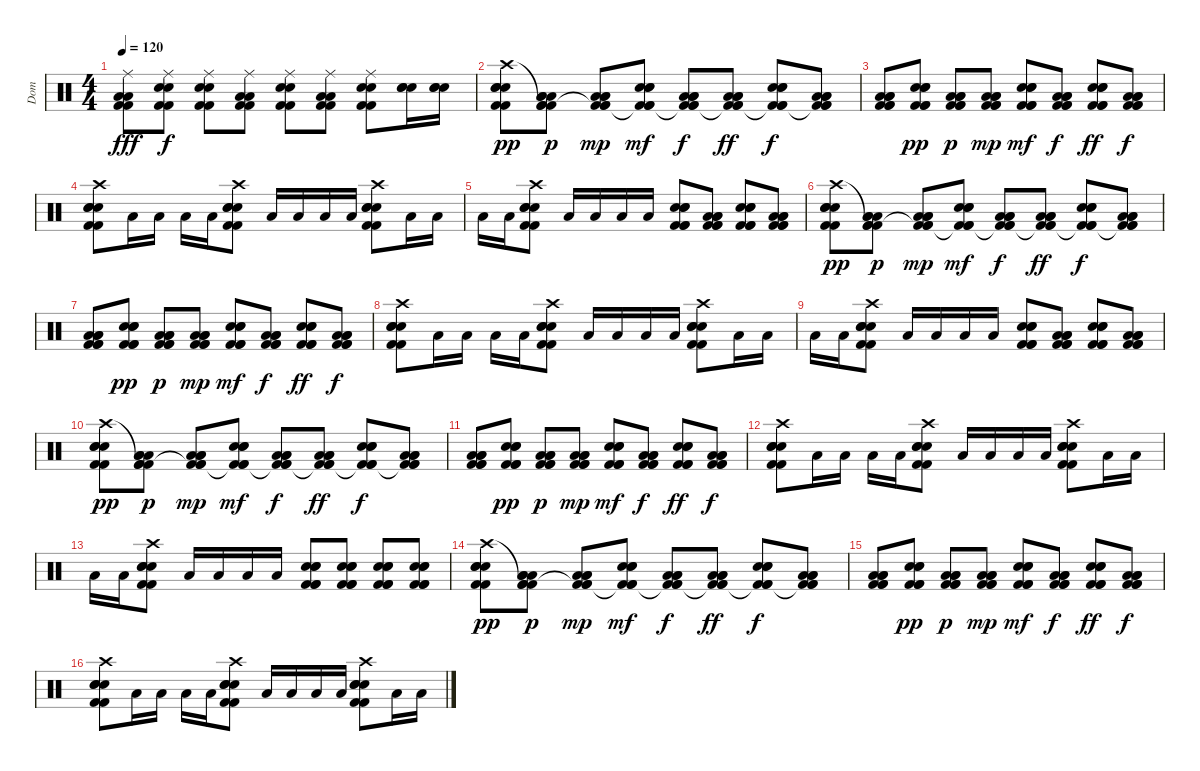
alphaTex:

\track ("Dom" "Dom") {instrument percussion}
\staff {score}
\articulation defaults
\ts (4 4)
\tempo 120
\clef neutral
\ks c
("Ride (middle)" "Low Floor Tom (hit)" "Low Floor Tom (hit)" "Kick (hit) 2" "Kick (hit) 2").8{dy fff} ("Ride (middle)" "Electric Snare (hit)" "Electric Snare (hit)" "Kick (hit) 2" "Kick (hit) 2").8{dy f} ("Ride (middle)" "Electric Snare (hit)" "Electric Snare (hit)" "Kick (hit) 2" "Kick (hit) 2").8 ("Ride (middle)" "Low Floor Tom (hit)" "Low Floor Tom (hit)" "Kick (hit) 2" "Kick (hit) 2").8 ("Ride (middle)" "Electric Snare (hit)" "Electric Snare (hit)" "Kick (hit) 2" "Kick (hit) 2").8 ("Ride (middle)" "Low Floor Tom (hit)" "Low Floor Tom (hit)" "Kick (hit) 2" "Kick (hit) 2").8 ("Ride (middle)" "Electric Snare (hit)" "Electric Snare (hit)" "Kick (hit) 2" "Kick (hit) 2").8 ("Electric Snare (hit)" "Electric Snare (hit)" "Electric Snare (hit)").16 ("Electric Snare (hit)" "Electric Snare (hit)" "Electric Snare (hit)").16 |
("Electric Snare (hit)" "Electric Snare (hit)" "Electric Snare (hit)" "Kick (hit) 2" "Kick (hit) 2" "Crash high (hit)").8{dy pp} ("Low Floor Tom (hit)" "Low Floor Tom (hit)" "Low Floor Tom (hit)" "Kick (hit) 2" "Kick (hit) 2" "Kick (hit) 2"{t}).8{dy p} ("Low Floor Tom (hit)" "Low Floor Tom (hit)" "Low Floor Tom (hit)" "Kick (hit) 2" "Kick (hit) 2" "Kick (hit) 2"{t}).8{dy mp} ("Electric Snare (hit)" "Electric Snare (hit)" "Electric Snare (hit)" "Kick (hit) 2" "Kick (hit) 2" "Kick (hit) 2"{t}).8{dy mf} ("Low Floor Tom (hit)" "Low Floor Tom (hit)" "Low Floor Tom (hit)" "Kick (hit) 2" "Kick (hit) 2" "Kick (hit) 2"{t}).8{dy f} ("Low Floor Tom (hit)" "Low Floor Tom (hit)" "Low Floor Tom (hit)" "Kick (hit) 2" "Kick (hit) 2" "Kick (hit) 2"{t}).8{dy ff} ("Electric Snare (hit)" "Electric Snare (hit)" "Electric Snare (hit)" "Kick (hit) 2" "Kick (hit) 2" "Kick (hit) 2"{t}).8{dy f} ("Low Floor Tom (hit)" "Low Floor Tom (hit)" "Low Floor Tom (hit)" "Kick (hit) 2" "Kick (hit) 2" "Kick (hit) 2"{t}).8 |
("Low Floor Tom (hit)" "Low Floor Tom (hit)" "Low Floor Tom (hit)" "Kick (hit) 2" "Kick (hit) 2" "Kick (hit) 2").8 ("Electric Snare (hit)" "Electric Snare (hit)" "Electric Snare (hit)" "Kick (hit) 2" "Kick (hit) 2" "Kick (hit) 2").8{dy pp} ("Low Floor Tom (hit)" "Low Floor Tom (hit)" "Low Floor Tom (hit)" "Kick (hit) 2" "Kick (hit) 2" "Kick (hit) 2").8{dy p} ("Low Floor Tom (hit)" "Low Floor Tom (hit)" "Low Floor Tom (hit)" "Kick (hit) 2" "Kick (hit) 2" "Kick (hit) 2").8{dy mp} ("Electric Snare (hit)" "Electric Snare (hit)" "Electric Snare (hit)" "Kick (hit) 2" "Kick (hit) 2" "Kick (hit) 2").8{dy mf} ("Low Floor Tom (hit)" "Low Floor Tom (hit)" "Low Floor Tom (hit)" "Kick (hit) 2" "Kick (hit) 2" "Kick (hit) 2").8{dy f} ("Electric Snare (hit)" "Electric Snare (hit)" "Electric Snare (hit)" "Kick (hit) 2" "Kick (hit) 2" "Kick (hit) 2").8{dy ff} ("Low Floor Tom (hit)" "Low Floor Tom (hit)" "Low Floor Tom (hit)" "Kick (hit) 2" "Kick (hit) 2" "Kick (hit) 2").8{dy f} |
("Electric Snare (hit)" "Electric Snare (hit)" "Electric Snare (hit)" "Kick (hit) 2" "Kick (hit) 2" "Crash high (hit)").8 "Low Tom (hit)".16 "Low Tom (hit)".16 "Low Tom (hit)".16 "Low Tom (hit)".16 ("Electric Snare (hit)" "Electric Snare (hit)" "Electric Snare (hit)" "Kick (hit) 2" "Kick (hit) 2" "Crash high (hit)").8 "Low Tom (hit)".16 "Low Tom (hit)".16 "Low Tom (hit)".16 "Low Tom (hit)".16 ("Electric Snare (hit)" "Electric Snare (hit)" "Electric Snare (hit)" "Kick (hit) 2" "Kick (hit) 2" "Crash high (hit)").8 "Low Tom (hit)".16 "Low Tom (hit)".16 |
"Low Tom (hit)".16 "Low Tom (hit)".16 ("Electric Snare (hit)" "Electric Snare (hit)" "Electric Snare (hit)" "Kick (hit) 2" "Kick (hit) 2" "Crash high (hit)").8 "Low Tom (hit)".16 "Low Tom (hit)".16 "Low Tom (hit)".16 "Low Tom (hit)".16 ("Electric Snare (hit)" "Electric Snare (hit)" "Electric Snare (hit)" "Kick (hit) 2" "Kick (hit) 2" "Kick (hit) 2").8 ("Low Floor Tom (hit)" "Low Floor Tom (hit)" "Low Floor Tom (hit)" "Kick (hit) 2" "Kick (hit) 2" "Kick (hit) 2").8 ("Electric Snare (hit)" "Electric Snare (hit)" "Electric Snare (hit)" "Kick (hit) 2" "Kick (hit) 2" "Kick (hit) 2").8 ("Low Floor Tom (hit)" "Low Floor Tom (hit)" "Low Floor Tom (hit)" "Kick (hit) 2" "Kick (hit) 2" "Kick (hit) 2").8 |
("Electric Snare (hit)" "Electric Snare (hit)" "Electric Snare (hit)" "Kick (hit) 2" "Kick (hit) 2" "Crash high (hit)").8{dy pp} ("Low Floor Tom (hit)" "Low Floor Tom (hit)" "Low Floor Tom (hit)" "Kick (hit) 2" "Kick (hit) 2" "Kick (hit) 2"{t}).8{dy p} ("Low Floor Tom (hit)" "Low Floor Tom (hit)" "Low Floor Tom (hit)" "Kick (hit) 2" "Kick (hit) 2" "Kick (hit) 2"{t}).8{dy mp} ("Electric Snare (hit)" "Electric Snare (hit)" "Electric Snare (hit)" "Kick (hit) 2" "Kick (hit) 2" "Kick (hit) 2"{t}).8{dy mf} ("Low Floor Tom (hit)" "Low Floor Tom (hit)" "Low Floor Tom (hit)" "Kick (hit) 2" "Kick (hit) 2" "Kick (hit) 2"{t}).8{dy f} ("Low Floor Tom (hit)" "Low Floor Tom (hit)" "Low Floor Tom (hit)" "Kick (hit) 2" "Kick (hit) 2" "Kick (hit) 2"{t}).8{dy ff} ("Electric Snare (hit)" "Electric Snare (hit)" "Electric Snare (hit)" "Kick (hit) 2" "Kick (hit) 2" "Kick (hit) 2"{t}).8{dy f} ("Low Floor Tom (hit)" "Low Floor Tom (hit)" "Low Floor Tom (hit)" "Kick (hit) 2" "Kick (hit) 2" "Kick (hit) 2"{t}).8 |
("Low Floor Tom (hit)" "Low Floor Tom (hit)" "Low Floor Tom (hit)" "Kick (hit) 2" "Kick (hit) 2" "Kick (hit) 2").8 ("Electric Snare (hit)" "Electric Snare (hit)" "Electric Snare (hit)" "Kick (hit) 2" "Kick (hit) 2" "Kick (hit) 2").8{dy pp} ("Low Floor Tom (hit)" "Low Floor Tom (hit)" "Low Floor Tom (hit)" "Kick (hit) 2" "Kick (hit) 2" "Kick (hit) 2").8{dy p} ("Low Floor Tom (hit)" "Low Floor Tom (hit)" "Low Floor Tom (hit)" "Kick (hit) 2" "Kick (hit) 2" "Kick (hit) 2").8{dy mp} ("Electric Snare (hit)" "Electric Snare (hit)" "Electric Snare (hit)" "Kick (hit) 2" "Kick (hit) 2" "Kick (hit) 2").8{dy mf} ("Low Floor Tom (hit)" "Low Floor Tom (hit)" "Low Floor Tom (hit)" "Kick (hit) 2" "Kick (hit) 2" "Kick (hit) 2").8{dy f} ("Electric Snare (hit)" "Electric Snare (hit)" "Electric Snare (hit)" "Kick (hit) 2" "Kick (hit) 2" "Kick (hit) 2").8{dy ff} ("Low Floor Tom (hit)" "Low Floor Tom (hit)" "Low Floor Tom (hit)" "Kick (hit) 2" "Kick (hit) 2" "Kick (hit) 2").8{dy f} |
("Electric Snare (hit)" "Electric Snare (hit)" "Electric Snare (hit)" "Kick (hit) 2" "Kick (hit) 2" "Crash high (hit)").8 "Low Tom (hit)".16 "Low Tom (hit)".16 "Low Tom (hit)".16 "Low Tom (hit)".16 ("Electric Snare (hit)" "Electric Snare (hit)" "Electric Snare (hit)" "Kick (hit) 2" "Kick (hit) 2" "Crash high (hit)").8 "Low Tom (hit)".16 "Low Tom (hit)".16 "Low Tom (hit)".16 "Low Tom (hit)".16 ("Electric Snare (hit)" "Electric Snare (hit)" "Electric Snare (hit)" "Kick (hit) 2" "Kick (hit) 2" "Crash high (hit)").8 "Low Tom (hit)".16 "Low Tom (hit)".16 |
"Low Tom (hit)".16 "Low Tom (hit)".16 ("Electric Snare (hit)" "Electric Snare (hit)" "Electric Snare (hit)" "Kick (hit) 2" "Kick (hit) 2" "Crash high (hit)").8 "Low Tom (hit)".16 "Low Tom (hit)".16 "Low Tom (hit)".16 "Low Tom (hit)".16 ("Electric Snare (hit)" "Electric Snare (hit)" "Electric Snare (hit)" "Kick (hit) 2" "Kick (hit) 2" "Kick (hit) 2").8 ("Low Floor Tom (hit)" "Low Floor Tom (hit)" "Low Floor Tom (hit)" "Kick (hit) 2" "Kick (hit) 2" "Kick (hit) 2").8 ("Electric Snare (hit)" "Electric Snare (hit)" "Electric Snare (hit)" "Kick (hit) 2" "Kick (hit) 2" "Kick (hit) 2").8 ("Low Floor Tom (hit)" "Low Floor Tom (hit)" "Low Floor Tom (hit)" "Kick (hit) 2" "Kick (hit) 2" "Kick (hit) 2").8 |
("Electric Snare (hit)" "Electric Snare (hit)" "Electric Snare (hit)" "Kick (hit) 2" "Kick (hit) 2" "Crash high (hit)").8{dy pp} ("Low Floor Tom (hit)" "Low Floor Tom (hit)" "Low Floor Tom (hit)" "Kick (hit) 2" "Kick (hit) 2" "Kick (hit) 2"{t}).8{dy p} ("Low Floor Tom (hit)" "Low Floor Tom (hit)" "Low Floor Tom (hit)" "Kick (hit) 2" "Kick (hit) 2" "Kick (hit) 2"{t}).8{dy mp} ("Electric Snare (hit)" "Electric Snare (hit)" "Electric Snare (hit)" "Kick (hit) 2" "Kick (hit) 2" "Kick (hit) 2"{t}).8{dy mf} ("Low Floor Tom (hit)" "Low Floor Tom (hit)" "Low Floor Tom (hit)" "Kick (hit) 2" "Kick (hit) 2" "Kick (hit) 2"{t}).8{dy f} ("Low Floor Tom (hit)" "Low Floor Tom (hit)" "Low Floor Tom (hit)" "Kick (hit) 2" "Kick (hit) 2" "Kick (hit) 2"{t}).8{dy ff} ("Electric Snare (hit)" "Electric Snare (hit)" "Electric Snare (hit)" "Kick (hit) 2" "Kick (hit) 2" "Kick (hit) 2"{t}).8{dy f} ("Low Floor Tom (hit)" "Low Floor Tom (hit)" "Low Floor Tom (hit)" "Kick (hit) 2" "Kick (hit) 2" "Kick (hit) 2"{t}).8 |
("Low Floor Tom (hit)" "Low Floor Tom (hit)" "Low Floor Tom (hit)" "Kick (hit) 2" "Kick (hit) 2" "Kick (hit) 2").8 ("Electric Snare (hit)" "Electric Snare (hit)" "Electric Snare (hit)" "Kick (hit) 2" "Kick (hit) 2" "Kick (hit) 2").8{dy pp} ("Low Floor Tom (hit)" "Low Floor Tom (hit)" "Low Floor Tom (hit)" "Kick (hit) 2" "Kick (hit) 2" "Kick (hit) 2").8{dy p} ("Low Floor Tom (hit)" "Low Floor Tom (hit)" "Low Floor Tom (hit)" "Kick (hit) 2" "Kick (hit) 2" "Kick (hit) 2").8{dy mp} ("Electric Snare (hit)" "Electric Snare (hit)" "Electric Snare (hit)" "Kick (hit) 2" "Kick (hit) 2" "Kick (hit) 2").8{dy mf} ("Low Floor Tom (hit)" "Low Floor Tom (hit)" "Low Floor Tom (hit)" "Kick (hit) 2" "Kick (hit) 2" "Kick (hit) 2").8{dy f} ("Electric Snare (hit)" "Electric Snare (hit)" "Electric Snare (hit)" "Kick (hit) 2" "Kick (hit) 2" "Kick (hit) 2").8{dy ff} ("Low Floor Tom (hit)" "Low Floor Tom (hit)" "Low Floor Tom (hit)" "Kick (hit) 2" "Kick (hit) 2" "Kick (hit) 2").8{dy f} |
("Electric Snare (hit)" "Electric Snare (hit)" "Electric Snare (hit)" "Kick (hit) 2" "Kick (hit) 2" "Crash high (hit)").8 "Low Tom (hit)".16 "Low Tom (hit)".16 "Low Tom (hit)".16 "Low Tom (hit)".16 ("Electric Snare (hit)" "Electric Snare (hit)" "Electric Snare (hit)" "Kick (hit) 2" "Kick (hit) 2" "Crash high (hit)").8 "Low Tom (hit)".16 "Low Tom (hit)".16 "Low Tom (hit)".16 "Low Tom (hit)".16 ("Electric Snare (hit)" "Electric Snare (hit)" "Electric Snare (hit)" "Kick (hit) 2" "Kick (hit) 2" "Crash high (hit)").8 "Low Tom (hit)".16 "Low Tom (hit)".16 |
"Low Tom (hit)".16 "Low Tom (hit)".16 ("Electric Snare (hit)" "Electric Snare (hit)" "Electric Snare (hit)" "Kick (hit) 2" "Kick (hit) 2" "Crash high (hit)").8 "Low Tom (hit)".16 "Low Tom (hit)".16 "Low Tom (hit)".16 "Low Tom (hit)".16 ("Electric Snare (hit)" "Electric Snare (hit)" "Electric Snare (hit)" "Kick (hit) 2" "Kick (hit) 2" "Kick (hit) 2").8 ("Electric Snare (hit)" "Electric Snare (hit)" "Electric Snare (hit)" "Kick (hit) 2" "Kick (hit) 2" "Kick (hit) 2").8 ("Electric Snare (hit)" "Electric Snare (hit)" "Electric Snare (hit)" "Kick (hit) 2" "Kick (hit) 2" "Kick (hit) 2").8 ("Electric Snare (hit)" "Electric Snare (hit)" "Electric Snare (hit)" "Kick (hit) 2" "Kick (hit) 2" "Kick (hit) 2").8 |
("Electric Snare (hit)" "Electric Snare (hit)" "Electric Snare (hit)" "Kick (hit) 2" "Kick (hit) 2" "Crash high (hit)").8{dy pp} ("Low Floor Tom (hit)" "Low Floor Tom (hit)" "Low Floor Tom (hit)" "Kick (hit) 2" "Kick (hit) 2" "Kick (hit) 2"{t}).8{dy p} ("Low Floor Tom (hit)" "Low Floor Tom (hit)" "Low Floor Tom (hit)" "Kick (hit) 2" "Kick (hit) 2" "Kick (hit) 2"{t}).8{dy mp} ("Electric Snare (hit)" "Electric Snare (hit)" "Electric Snare (hit)" "Kick (hit) 2" "Kick (hit) 2" "Kick (hit) 2"{t}).8{dy mf} ("Low Floor Tom (hit)" "Low Floor Tom (hit)" "Low Floor Tom (hit)" "Kick (hit) 2" "Kick (hit) 2" "Kick (hit) 2"{t}).8{dy f} ("Low Floor Tom (hit)" "Low Floor Tom (hit)" "Low Floor Tom (hit)" "Kick (hit) 2" "Kick (hit) 2" "Kick (hit) 2"{t}).8{dy ff} ("Electric Snare (hit)" "Electric Snare (hit)" "Electric Snare (hit)" "Kick (hit) 2" "Kick (hit) 2" "Kick (hit) 2"{t}).8{dy f} ("Low Floor Tom (hit)" "Low Floor Tom (hit)" "Low Floor Tom (hit)" "Kick (hit) 2" "Kick (hit) 2" "Kick (hit) 2"{t}).8 |
("Low Floor Tom (hit)" "Low Floor Tom (hit)" "Low Floor Tom (hit)" "Kick (hit) 2" "Kick (hit) 2" "Kick (hit) 2").8 ("Electric Snare (hit)" "Electric Snare (hit)" "Electric Snare (hit)" "Kick (hit) 2" "Kick (hit) 2" "Kick (hit) 2").8{dy pp} ("Low Floor Tom (hit)" "Low Floor Tom (hit)" "Low Floor Tom (hit)" "Kick (hit) 2" "Kick (hit) 2" "Kick (hit) 2").8{dy p} ("Low Floor Tom (hit)" "Low Floor Tom (hit)" "Low Floor Tom (hit)" "Kick (hit) 2" "Kick (hit) 2" "Kick (hit) 2").8{dy mp} ("Electric Snare (hit)" "Electric Snare (hit)" "Electric Snare (hit)" "Kick (hit) 2" "Kick (hit) 2" "Kick (hit) 2").8{dy mf} ("Low Floor Tom (hit)" "Low Floor Tom (hit)" "Low Floor Tom (hit)" "Kick (hit) 2" "Kick (hit) 2" "Kick (hit) 2").8{dy f} ("Electric Snare (hit)" "Electric Snare (hit)" "Electric Snare (hit)" "Kick (hit) 2" "Kick (hit) 2" "Kick (hit) 2").8{dy ff} ("Low Floor Tom (hit)" "Low Floor Tom (hit)" "Low Floor Tom (hit)" "Kick (hit) 2" "Kick (hit) 2" "Kick (hit) 2").8{dy f} |
("Electric Snare (hit)" "Electric Snare (hit)" "Electric Snare (hit)" "Kick (hit) 2" "Kick (hit) 2" "Crash high (hit)").8 "Low Tom (hit)".16 "Low Tom (hit)".16 "Low Tom (hit)".16 "Low Tom (hit)".16 ("Electric Snare (hit)" "Electric Snare (hit)" "Electric Snare (hit)" "Kick (hit) 2" "Kick (hit) 2" "Crash high (hit)").8 "Low Tom (hit)".16 "Low Tom (hit)".16 "Low Tom (hit)".16 "Low Tom (hit)".16 ("Electric Snare (hit)" "Electric Snare (hit)" "Electric Snare (hit)" "Kick (hit) 2" "Kick (hit) 2" "Crash high (hit)").8 "Low Tom (hit)".16 "Low Tom (hit)".16
